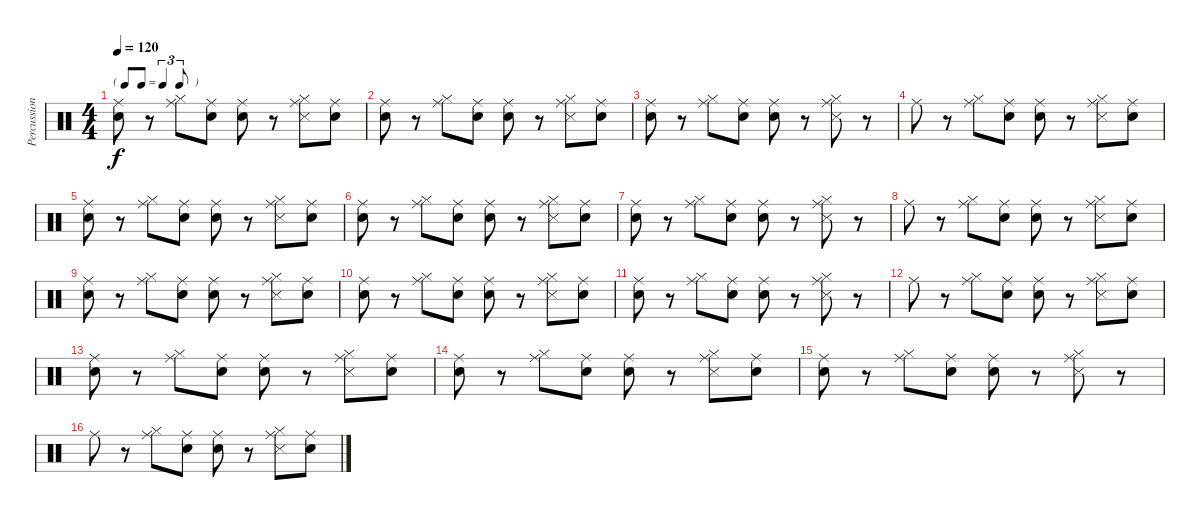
\track ("Percussions" "Percussion") {instrument percussion}
\staff {score}
\articulation defaults
\ts (4 4)
\tf triplet8th
\tempo 120
\clef neutral
\ks c
("Snare (hit)" "Ride (middle)").8{dy f} r.8 ("Hi-Hat (closed)" "Ride (middle)").8 ("Snare (hit)" "Ride (middle)").8 ("Snare (hit)" "Ride (middle)").8 r.8 ("Hi-Hat (closed)" "Snare (side stick) 3" "Ride (middle)").8 ("Snare (hit)" "Ride (middle)").8 |
("Snare (hit)" "Ride (middle)").8 r.8 ("Hi-Hat (closed)" "Ride (middle)").8 ("Snare (hit)" "Ride (middle)").8 ("Snare (hit)" "Ride (middle)").8 r.8 ("Hi-Hat (closed)" "Snare (side stick) 3" "Ride (middle)").8 ("Snare (hit)" "Ride (middle)").8 |
("Snare (hit)" "Ride (middle)").8 r.8 ("Hi-Hat (closed)" "Ride (middle)").8 ("Snare (hit)" "Ride (middle)").8 ("Snare (hit)" "Ride (middle)").8 r.8 ("Hi-Hat (closed)" "Snare (side stick) 3" "Ride (middle)").8 r.8 |
"Ride (middle)".8 r.8 ("Hi-Hat (closed)" "Ride (middle)").8 ("Snare (hit)" "Ride (middle)").8 ("Snare (hit)" "Ride (middle)").8 r.8 ("Hi-Hat (closed)" "Snare (side stick) 3" "Ride (middle)").8 ("Snare (hit)" "Ride (middle)").8 |
("Snare (hit)" "Ride (middle)").8 r.8 ("Hi-Hat (closed)" "Ride (middle)").8 ("Snare (hit)" "Ride (middle)").8 ("Snare (hit)" "Ride (middle)").8 r.8 ("Hi-Hat (closed)" "Snare (side stick) 3" "Ride (middle)").8 ("Snare (hit)" "Ride (middle)").8 |
("Snare (hit)" "Ride (middle)").8 r.8 ("Hi-Hat (closed)" "Ride (middle)").8 ("Snare (hit)" "Ride (middle)").8 ("Snare (hit)" "Ride (middle)").8 r.8 ("Hi-Hat (closed)" "Snare (side stick) 3" "Ride (middle)").8 ("Snare (hit)" "Ride (middle)").8 |
("Snare (hit)" "Ride (middle)").8 r.8 ("Hi-Hat (closed)" "Ride (middle)").8 ("Snare (hit)" "Ride (middle)").8 ("Snare (hit)" "Ride (middle)").8 r.8 ("Hi-Hat (closed)" "Snare (side stick) 3" "Ride (middle)").8 r.8 |
"Ride (middle)".8 r.8 ("Hi-Hat (closed)" "Ride (middle)").8 ("Snare (hit)" "Ride (middle)").8 ("Snare (hit)" "Ride (middle)").8 r.8 ("Hi-Hat (closed)" "Snare (side stick) 3" "Ride (middle)").8 ("Snare (hit)" "Ride (middle)").8 |
("Snare (hit)" "Ride (middle)").8 r.8 ("Hi-Hat (closed)" "Ride (middle)").8 ("Snare (hit)" "Ride (middle)").8 ("Snare (hit)" "Ride (middle)").8 r.8 ("Hi-Hat (closed)" "Snare (side stick) 3" "Ride (middle)").8 ("Snare (hit)" "Ride (middle)").8 |
("Snare (hit)" "Ride (middle)").8 r.8 ("Hi-Hat (closed)" "Ride (middle)").8 ("Snare (hit)" "Ride (middle)").8 ("Snare (hit)" "Ride (middle)").8 r.8 ("Hi-Hat (closed)" "Snare (side stick) 3" "Ride (middle)").8 ("Snare (hit)" "Ride (middle)").8 |
("Snare (hit)" "Ride (middle)").8 r.8 ("Hi-Hat (closed)" "Ride (middle)").8 ("Snare (hit)" "Ride (middle)").8 ("Snare (hit)" "Ride (middle)").8 r.8 ("Hi-Hat (closed)" "Snare (side stick) 3" "Ride (middle)").8 r.8 |
"Ride (middle)".8 r.8 ("Hi-Hat (closed)" "Ride (middle)").8 ("Snare (hit)" "Ride (middle)").8 ("Snare (hit)" "Ride (middle)").8 r.8 ("Hi-Hat (closed)" "Snare (side stick) 3" "Ride (middle)").8 ("Snare (hit)" "Ride (middle)").8 |
("Snare (hit)" "Ride (middle)").8 r.8 ("Hi-Hat (closed)" "Ride (middle)").8 ("Snare (hit)" "Ride (middle)").8 ("Snare (hit)" "Ride (middle)").8 r.8 ("Hi-Hat (closed)" "Snare (side stick) 3" "Ride (middle)").8 ("Snare (hit)" "Ride (middle)").8 |
("Snare (hit)" "Ride (middle)").8 r.8 ("Hi-Hat (closed)" "Ride (middle)").8 ("Snare (hit)" "Ride (middle)").8 ("Snare (hit)" "Ride (middle)").8 r.8 ("Hi-Hat (closed)" "Snare (side stick) 3" "Ride (middle)").8 ("Snare (hit)" "Ride (middle)").8 |
("Snare (hit)" "Ride (middle)").8 r.8 ("Hi-Hat (closed)" "Ride (middle)").8 ("Snare (hit)" "Ride (middle)").8 ("Snare (hit)" "Ride (middle)").8 r.8 ("Hi-Hat (closed)" "Snare (side stick) 3" "Ride (middle)").8 r.8 |
"Ride (middle)".8 r.8 ("Hi-Hat (closed)" "Ride (middle)").8 ("Snare (hit)" "Ride (middle)").8 ("Snare (hit)" "Ride (middle)").8 r.8 ("Hi-Hat (closed)" "Snare (side stick) 3" "Ride (middle)").8 ("Snare (hit)" "Ride (middle)").8
